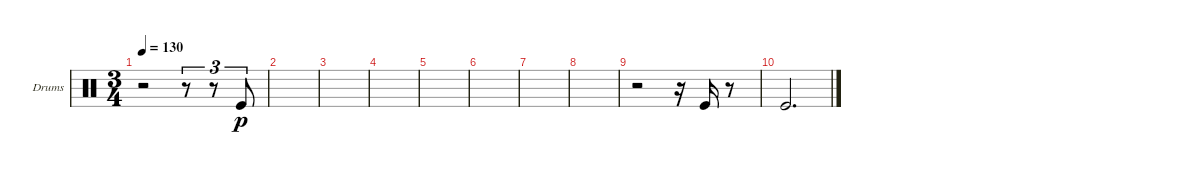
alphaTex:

\bracketExtendMode groupsimilarinstruments
\firstSystemTrackNameOrientation horizontal
\otherSystemsTrackNameOrientation horizontal
\track ("Kick" "Drums") {instrument percussion}
\staff {score}
\articulation defaults
\ts (3 4)
\tempo 130
\clef neutral
\ks c
r.2{dy p} r.8{tu (3 2)} r.8{tu (3 2)} "Kick (hit)".8{tu (3 2)} |
|
|
|
|
|
|
|
r.2 r.16 "Kick (hit)".16 r.8 |
"Kick (hit)".2{d}
